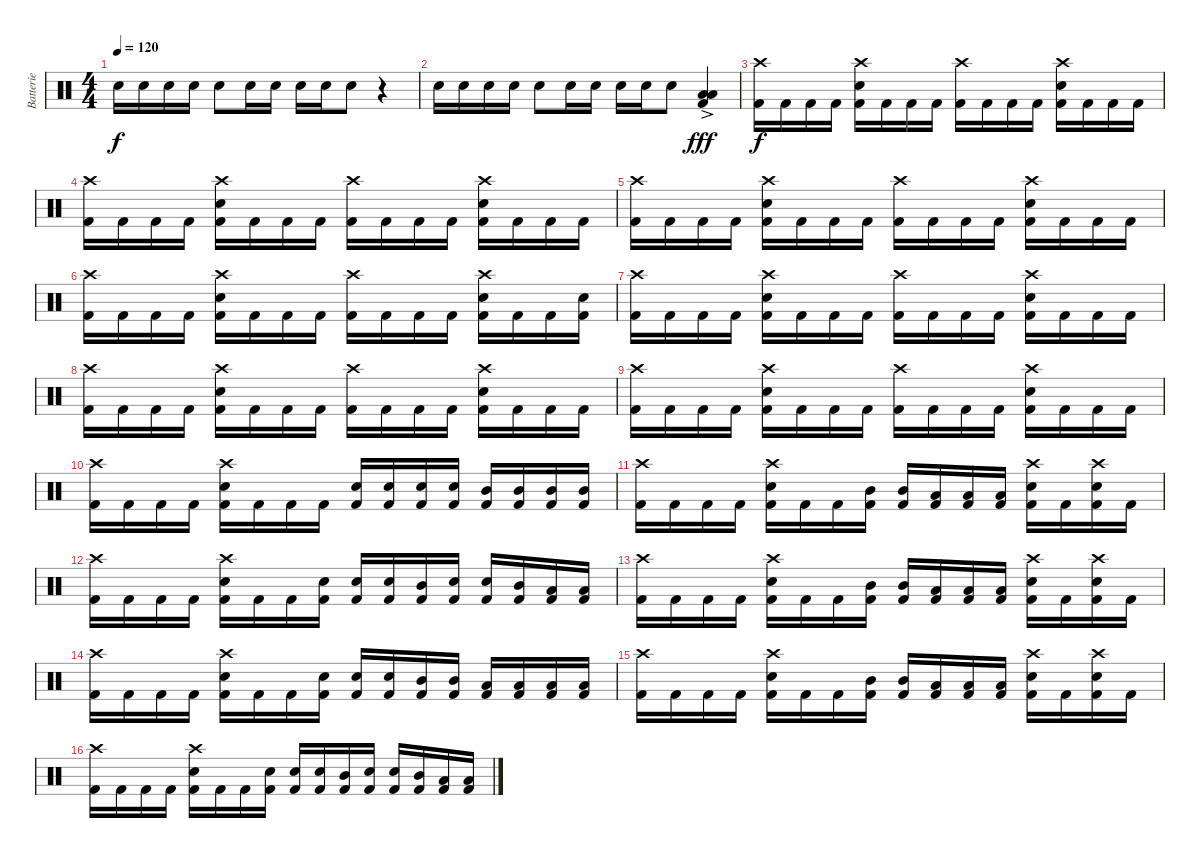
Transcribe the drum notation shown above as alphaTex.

\track ("Batterie" "Batterie") {instrument percussion}
\staff {score}
\articulation defaults
\ts (4 4)
\tempo 120
\clef neutral
\ks c "Electric Snare (hit)".16{dy f} "Electric Snare (hit)".16 "Electric Snare (hit)".16 "Electric Snare (hit)".16 "Electric Snare (hit)".8 "Electric Snare (hit)".16 "Electric Snare (hit)".16 "Electric Snare (hit)".16 "Electric Snare (hit)".16 "Electric Snare (hit)".8
r.4 |
"Electric Snare (hit)".16 "Electric Snare (hit)".16 "Electric Snare (hit)".16 "Electric Snare (hit)".16 "Electric Snare (hit)".8 "Electric Snare (hit)".16 "Electric Snare (hit)".16 "Electric Snare (hit)".16 "Electric Snare (hit)".16 "Electric Snare (hit)".8 ("Low Tom (hit)"{ac} "Low Floor Tom (hit)"{ac} "Kick (hit) 2"{ac}).4{dy fff} |
("Crash high (hit)" "Kick (hit) 2").16{dy f} "Kick (hit) 2".16 "Kick (hit) 2".16 "Kick (hit) 2".16 ("Crash high (hit)" "Electric Snare (hit)" "Kick (hit) 2").16 "Kick (hit) 2".16 "Kick (hit) 2".16 "Kick (hit) 2".16 ("Crash high (hit)" "Kick (hit) 2").16 "Kick (hit) 2".16 "Kick (hit) 2".16 "Kick (hit) 2".16 ("Crash high (hit)" "Electric Snare (hit)" "Kick (hit) 2").16 "Kick (hit) 2".16 "Kick (hit) 2".16 "Kick (hit) 2".16 |
("Crash high (hit)" "Kick (hit) 2").16 "Kick (hit) 2".16 "Kick (hit) 2".16 "Kick (hit) 2".16 ("Crash high (hit)" "Electric Snare (hit)" "Kick (hit) 2").16 "Kick (hit) 2".16 "Kick (hit) 2".16 "Kick (hit) 2".16 ("Crash high (hit)" "Kick (hit) 2").16 "Kick (hit) 2".16 "Kick (hit) 2".16 "Kick (hit) 2".16 ("Crash high (hit)" "Electric Snare (hit)" "Kick (hit) 2").16 "Kick (hit) 2".16 "Kick (hit) 2".16 "Kick (hit) 2".16 |
("Crash high (hit)" "Kick (hit) 2").16 "Kick (hit) 2".16 "Kick (hit) 2".16 "Kick (hit) 2".16 ("Crash high (hit)" "Electric Snare (hit)" "Kick (hit) 2").16 "Kick (hit) 2".16 "Kick (hit) 2".16 "Kick (hit) 2".16 ("Crash high (hit)" "Kick (hit) 2").16 "Kick (hit) 2".16 "Kick (hit) 2".16 "Kick (hit) 2".16 ("Crash high (hit)" "Electric Snare (hit)" "Kick (hit) 2").16 "Kick (hit) 2".16 "Kick (hit) 2".16 "Kick (hit) 2".16 |
("Crash high (hit)" "Kick (hit) 2").16 "Kick (hit) 2".16 "Kick (hit) 2".16 "Kick (hit) 2".16 ("Crash high (hit)" "Electric Snare (hit)" "Kick (hit) 2").16 "Kick (hit) 2".16 "Kick (hit) 2".16 "Kick (hit) 2".16 ("Crash high (hit)" "Kick (hit) 2").16 "Kick (hit) 2".16 "Kick (hit) 2".16 "Kick (hit) 2".16 ("Crash high (hit)" "Electric Snare (hit)" "Kick (hit) 2").16 "Kick (hit) 2".16 "Kick (hit) 2".16 ("Electric Snare (hit)" "Kick (hit) 2").16 |
("Crash high (hit)" "Kick (hit) 2").16 "Kick (hit) 2".16 "Kick (hit) 2".16 "Kick (hit) 2".16 ("Crash high (hit)" "Electric Snare (hit)" "Kick (hit) 2").16 "Kick (hit) 2".16 "Kick (hit) 2".16 "Kick (hit) 2".16 ("Crash high (hit)" "Kick (hit) 2").16 "Kick (hit) 2".16 "Kick (hit) 2".16 "Kick (hit) 2".16 ("Crash high (hit)" "Electric Snare (hit)" "Kick (hit) 2").16 "Kick (hit) 2".16 "Kick (hit) 2".16 "Kick (hit) 2".16 |
("Crash high (hit)" "Kick (hit) 2").16 "Kick (hit) 2".16 "Kick (hit) 2".16 "Kick (hit) 2".16 ("Crash high (hit)" "Electric Snare (hit)" "Kick (hit) 2").16 "Kick (hit) 2".16 "Kick (hit) 2".16 "Kick (hit) 2".16 ("Crash high (hit)" "Kick (hit) 2").16 "Kick (hit) 2".16 "Kick (hit) 2".16 "Kick (hit) 2".16 ("Crash high (hit)" "Electric Snare (hit)" "Kick (hit) 2").16 "Kick (hit) 2".16 "Kick (hit) 2".16 "Kick (hit) 2".16 |
("Crash high (hit)" "Kick (hit) 2").16 "Kick (hit) 2".16 "Kick (hit) 2".16 "Kick (hit) 2".16 ("Crash high (hit)" "Electric Snare (hit)" "Kick (hit) 2").16 "Kick (hit) 2".16 "Kick (hit) 2".16 "Kick (hit) 2".16 ("Crash high (hit)" "Kick (hit) 2").16 "Kick (hit) 2".16 "Kick (hit) 2".16 "Kick (hit) 2".16 ("Crash high (hit)" "Electric Snare (hit)" "Kick (hit) 2").16 "Kick (hit) 2".16 "Kick (hit) 2".16 "Kick (hit) 2".16 |
("Crash high (hit)" "Kick (hit) 2").16 "Kick (hit) 2".16 "Kick (hit) 2".16 "Kick (hit) 2".16 ("Crash high (hit)" "Electric Snare (hit)" "Kick (hit) 2").16 "Kick (hit) 2".16 "Kick (hit) 2".16 "Kick (hit) 2".16 ("Electric Snare (hit)" "Kick (hit) 2").16 ("Electric Snare (hit)" "Kick (hit) 2").16 ("Electric Snare (hit)" "Kick (hit) 2").16 ("Electric Snare (hit)" "Kick (hit) 2").16 ("Mid Tom (hit)" "Kick (hit) 2").16 ("Mid Tom (hit)" "Kick (hit) 2").16 ("Mid Tom (hit)" "Kick (hit) 2").16 ("Mid Tom (hit)" "Kick (hit) 2").16 |
("Kick (hit) 2" "Crash high (hit)").16 "Kick (hit) 2".16 "Kick (hit) 2".16 "Kick (hit) 2".16 ("Electric Snare (hit)" "Kick (hit) 2" "Crash high (hit)").16 "Kick (hit) 2".16 "Kick (hit) 2".16 ("Mid Tom (hit)" "Kick (hit) 2").16 ("Mid Tom (hit)" "Kick (hit) 2").16 ("Low Tom (hit)" "Kick (hit) 2").16 ("Low Tom (hit)" "Kick (hit) 2").16 ("Low Floor Tom (hit)" "Kick (hit) 2").16 ("Electric Snare (hit)" "Kick (hit) 2" "Crash high (hit)").16 "Kick (hit) 2".16 ("Electric Snare (hit)" "Kick (hit) 2" "Crash high (hit)").16 "Kick (hit) 2".16 |
("Kick (hit) 2" "Crash high (hit)").16 "Kick (hit) 2".16 "Kick (hit) 2".16 "Kick (hit) 2".16 ("Electric Snare (hit)" "Kick (hit) 2" "Crash high (hit)").16 "Kick (hit) 2".16 "Kick (hit) 2".16 ("Electric Snare (hit)" "Kick (hit) 2").16 ("Electric Snare (hit)" "Kick (hit) 2").16 ("Electric Snare (hit)" "Kick (hit) 2").16 ("Mid Tom (hit)" "Kick (hit) 2").16 ("Electric Snare (hit)" "Kick (hit) 2").16 ("Electric Snare (hit)" "Kick (hit) 2").16 ("Mid Tom (hit)" "Kick (hit) 2").16 ("Low Tom (hit)" "Kick (hit) 2").16 ("Low Floor Tom (hit)" "Kick (hit) 2").16 |
("Kick (hit) 2" "Crash high (hit)").16 "Kick (hit) 2".16 "Kick (hit) 2".16 "Kick (hit) 2".16 ("Electric Snare (hit)" "Kick (hit) 2" "Crash high (hit)").16 "Kick (hit) 2".16 "Kick (hit) 2".16 ("Mid Tom (hit)" "Kick (hit) 2").16 ("Mid Tom (hit)" "Kick (hit) 2").16 ("Low Tom (hit)" "Kick (hit) 2").16 ("Low Tom (hit)" "Kick (hit) 2").16 ("Low Floor Tom (hit)" "Kick (hit) 2").16 ("Electric Snare (hit)" "Kick (hit) 2" "Crash high (hit)").16 "Kick (hit) 2".16 ("Electric Snare (hit)" "Kick (hit) 2" "Crash high (hit)").16 "Kick (hit) 2".16 |
("Kick (hit) 2" "Crash high (hit)").16 "Kick (hit) 2".16 "Kick (hit) 2".16 "Kick (hit) 2".16 ("Electric Snare (hit)" "Kick (hit) 2" "Crash high (hit)").16 "Kick (hit) 2".16 "Kick (hit) 2".16 ("Electric Snare (hit)" "Kick (hit) 2").16 ("Electric Snare (hit)" "Kick (hit) 2").16 ("Electric Snare (hit)" "Kick (hit) 2").16 ("Mid Tom (hit)" "Kick (hit) 2").16 ("Mid Tom (hit)" "Kick (hit) 2").16 ("Low Tom (hit)" "Kick (hit) 2").16 ("Low Tom (hit)" "Kick (hit) 2").16 ("Low Floor Tom (hit)" "Kick (hit) 2").16 ("Low Floor Tom (hit)" "Kick (hit) 2").16 |
("Kick (hit) 2" "Crash high (hit)").16 "Kick (hit) 2".16 "Kick (hit) 2".16 "Kick (hit) 2".16 ("Electric Snare (hit)" "Kick (hit) 2" "Crash high (hit)").16 "Kick (hit) 2".16 "Kick (hit) 2".16 ("Mid Tom (hit)" "Kick (hit) 2").16 ("Mid Tom (hit)" "Kick (hit) 2").16 ("Low Tom (hit)" "Kick (hit) 2").16 ("Low Tom (hit)" "Kick (hit) 2").16 ("Low Floor Tom (hit)" "Kick (hit) 2").16 ("Electric Snare (hit)" "Kick (hit) 2" "Crash high (hit)").16 "Kick (hit) 2".16 ("Electric Snare (hit)" "Kick (hit) 2" "Crash high (hit)").16 "Kick (hit) 2".16 |
("Kick (hit) 2" "Crash high (hit)").16 "Kick (hit) 2".16 "Kick (hit) 2".16 "Kick (hit) 2".16 ("Electric Snare (hit)" "Kick (hit) 2" "Crash high (hit)").16 "Kick (hit) 2".16 "Kick (hit) 2".16 ("Electric Snare (hit)" "Kick (hit) 2").16 ("Electric Snare (hit)" "Kick (hit) 2").16 ("Electric Snare (hit)" "Kick (hit) 2").16 ("Mid Tom (hit)" "Kick (hit) 2").16 ("Electric Snare (hit)" "Kick (hit) 2").16 ("Electric Snare (hit)" "Kick (hit) 2").16 ("Mid Tom (hit)" "Kick (hit) 2").16 ("Low Tom (hit)" "Kick (hit) 2").16 ("Low Floor Tom (hit)" "Kick (hit) 2").16
